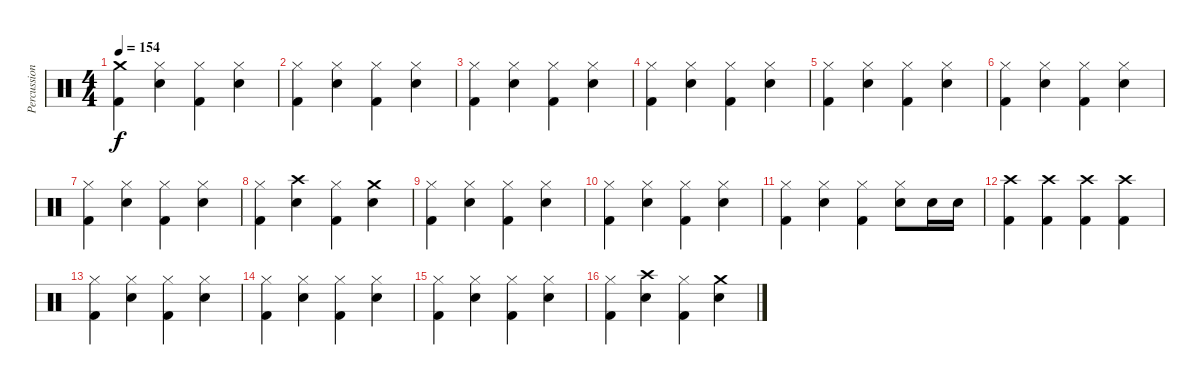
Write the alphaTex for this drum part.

\track ("Percussion" "Percussion") {instrument percussion}
\staff {score}
\articulation defaults
\ts (4 4)
\tempo 154
\clef neutral
\ks c
("Crash medium (hit)" "Kick (hit) 2").4{dy f} ("Hi-Hat (closed)" "Snare (hit) 2").4 ("Hi-Hat (closed)" "Kick (hit) 2").4 ("Hi-Hat (closed)" "Snare (hit) 2").4 |
("Hi-Hat (closed)" "Kick (hit) 2").4 ("Hi-Hat (closed)" "Snare (hit) 2").4 ("Hi-Hat (closed)" "Kick (hit) 2").4 ("Hi-Hat (closed)" "Snare (hit) 2").4 |
("Hi-Hat (closed)" "Kick (hit) 2").4 ("Hi-Hat (closed)" "Snare (hit) 2").4 ("Hi-Hat (closed)" "Kick (hit) 2").4 ("Hi-Hat (closed)" "Snare (hit) 2").4 |
("Hi-Hat (closed)" "Kick (hit) 2").4 ("Hi-Hat (closed)" "Snare (hit) 2").4 ("Hi-Hat (closed)" "Kick (hit) 2").4 ("Hi-Hat (closed)" "Snare (hit) 2").4 |
("Hi-Hat (closed)" "Kick (hit) 2").4 ("Hi-Hat (closed)" "Snare (hit) 2").4 ("Hi-Hat (closed)" "Kick (hit) 2").4 ("Hi-Hat (closed)" "Snare (hit) 2").4 |
("Hi-Hat (closed)" "Kick (hit) 2").4 ("Hi-Hat (closed)" "Snare (hit) 2").4 ("Hi-Hat (closed)" "Kick (hit) 2").4 ("Hi-Hat (closed)" "Snare (hit) 2").4 |
("Hi-Hat (closed)" "Kick (hit) 2").4 ("Hi-Hat (closed)" "Snare (hit) 2").4 ("Hi-Hat (closed)" "Kick (hit) 2").4 ("Hi-Hat (closed)" "Snare (hit) 2").4 |
("Hi-Hat (closed)" "Kick (hit) 2").4 ("Crash high (hit)" "Snare (hit) 2").4 ("Hi-Hat (closed)" "Kick (hit) 2").4 ("Crash medium (hit)" "Snare (hit) 2").4 |
("Hi-Hat (closed)" "Kick (hit) 2").4 ("Hi-Hat (closed)" "Snare (hit) 2").4 ("Hi-Hat (closed)" "Kick (hit) 2").4 ("Hi-Hat (closed)" "Snare (hit) 2").4 |
("Hi-Hat (closed)" "Kick (hit) 2").4 ("Hi-Hat (closed)" "Snare (hit) 2").4 ("Hi-Hat (closed)" "Kick (hit) 2").4 ("Hi-Hat (closed)" "Snare (hit) 2").4 |
("Hi-Hat (closed)" "Kick (hit) 2").4 ("Hi-Hat (closed)" "Snare (hit) 2").4 ("Hi-Hat (closed)" "Kick (hit) 2").4 ("Hi-Hat (closed)" "Snare (hit) 2").8 "Snare (hit) 2".16 "Snare (hit) 2".16 |
("Crash high (hit)" "Kick (hit) 2").4 ("Crash high (hit)" "Kick (hit) 2").4 ("Crash high (hit)" "Kick (hit) 2").4 ("Crash high (hit)" "Kick (hit) 2").4 |
("Hi-Hat (closed)" "Kick (hit) 2").4 ("Hi-Hat (closed)" "Snare (hit) 2").4 ("Hi-Hat (closed)" "Kick (hit) 2").4 ("Hi-Hat (closed)" "Snare (hit) 2").4 |
("Hi-Hat (closed)" "Kick (hit) 2").4 ("Hi-Hat (closed)" "Snare (hit) 2").4 ("Hi-Hat (closed)" "Kick (hit) 2").4 ("Hi-Hat (closed)" "Snare (hit) 2").4 |
("Hi-Hat (closed)" "Kick (hit) 2").4 ("Hi-Hat (closed)" "Snare (hit) 2").4 ("Hi-Hat (closed)" "Kick (hit) 2").4 ("Hi-Hat (closed)" "Snare (hit) 2").4 |
("Hi-Hat (closed)" "Kick (hit) 2").4 ("Crash high (hit)" "Snare (hit) 2").4 ("Hi-Hat (closed)" "Kick (hit) 2").4 ("Crash medium (hit)" "Snare (hit) 2").4
